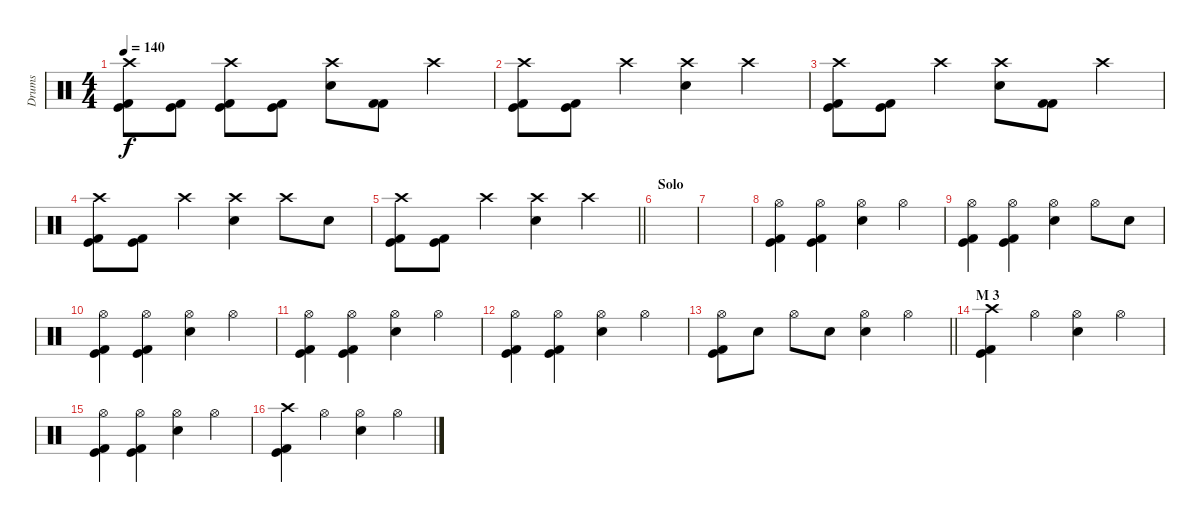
\track ("Drums" "Drums") {instrument percussion}
\staff {score}
\articulation defaults
\ts (4 4)
\tempo 140
\clef neutral
\ks c
("Kick (hit)" "Kick (hit) 2" "Crash high (hit)").8{dy f} ("Kick (hit) 2" "Kick (hit)").8 ("Crash high (hit)" "Kick (hit) 2" "Kick (hit)").8 ("Kick (hit)" "Kick (hit) 2").8 ("Snare (hit) 2" "Crash high (hit)").8 ("Kick (hit) 2" "Kick (hit) 2").8 "Crash high (hit)".4 |
("Kick (hit)" "Kick (hit) 2" "Crash high (hit)").8 ("Kick (hit) 2" "Kick (hit)").8 "Crash high (hit)".4 ("Snare (hit) 2" "Crash high (hit)").4 "Crash high (hit)".4 |
("Kick (hit)" "Kick (hit) 2" "Crash high (hit)").8 ("Kick (hit) 2" "Kick (hit)").8 "Crash high (hit)".4 ("Snare (hit) 2" "Crash high (hit)").8 ("Kick (hit) 2" "Kick (hit) 2").8 "Crash high (hit)".4 |
("Kick (hit)" "Kick (hit) 2" "Crash high (hit)").8 ("Kick (hit) 2" "Kick (hit)").8 "Crash high (hit)".4 ("Snare (hit) 2" "Crash high (hit)").4 "Crash high (hit)".8 "Snare (hit) 2".8 |
\barLineRight lightlight
("Kick (hit)" "Kick (hit) 2" "Crash high (hit)").8 ("Kick (hit) 2" "Kick (hit)").8 "Crash high (hit)".4 ("Snare (hit) 2" "Crash high (hit)").4 "Crash high (hit)".4 |
\section ("" "Solo")
|
|
("Kick (hit)" "Hi-Hat (open)" "Kick (hit) 2").4{volume 0} ("Kick (hit)" "Hi-Hat (open)" "Kick (hit) 2").4{volume 7} ("Snare (hit) 2" "Hi-Hat (open)").4 "Hi-Hat (open)".4 |
("Kick (hit)" "Hi-Hat (open)" "Kick (hit) 2").4 ("Kick (hit)" "Hi-Hat (open)" "Kick (hit) 2").4 ("Snare (hit) 2" "Hi-Hat (open)").4 "Hi-Hat (open)".8 "Snare (hit) 2".8 |
("Kick (hit)" "Hi-Hat (open)" "Kick (hit) 2").4 ("Kick (hit)" "Hi-Hat (open)" "Kick (hit) 2").4 ("Snare (hit) 2" "Hi-Hat (open)").4 "Hi-Hat (open)".4 |
("Kick (hit)" "Hi-Hat (open)" "Kick (hit) 2").4 ("Kick (hit)" "Hi-Hat (open)" "Kick (hit) 2").4 ("Snare (hit) 2" "Hi-Hat (open)").4 "Hi-Hat (open)".4 |
("Kick (hit)" "Hi-Hat (open)" "Kick (hit) 2").4 ("Kick (hit)" "Hi-Hat (open)" "Kick (hit) 2").4 ("Snare (hit) 2" "Hi-Hat (open)").4 "Hi-Hat (open)".4 |
\barLineRight lightlight
("Hi-Hat (open)" "Kick (hit)" "Kick (hit) 2").8 "Snare (hit) 2".8 "Hi-Hat (open)".8 "Snare (hit) 2".8 ("Snare (hit) 2" "Hi-Hat (open)").4 "Hi-Hat (open)".4 |
\section ("" "M 3")
("Crash high (hit)" "Kick (hit)" "Kick (hit) 2").4{volume 13} "Hi-Hat (open)".4 ("Hi-Hat (open)" "Snare (hit) 2").4 "Hi-Hat (open)".4 |
("Kick (hit)" "Hi-Hat (open)" "Kick (hit) 2").4 ("Kick (hit)" "Hi-Hat (open)" "Kick (hit) 2").4 ("Snare (hit) 2" "Hi-Hat (open)").4 "Hi-Hat (open)".4 |
("Crash high (hit)" "Kick (hit)" "Kick (hit) 2").4 "Hi-Hat (open)".4 ("Hi-Hat (open)" "Snare (hit) 2").4 "Hi-Hat (open)".4
